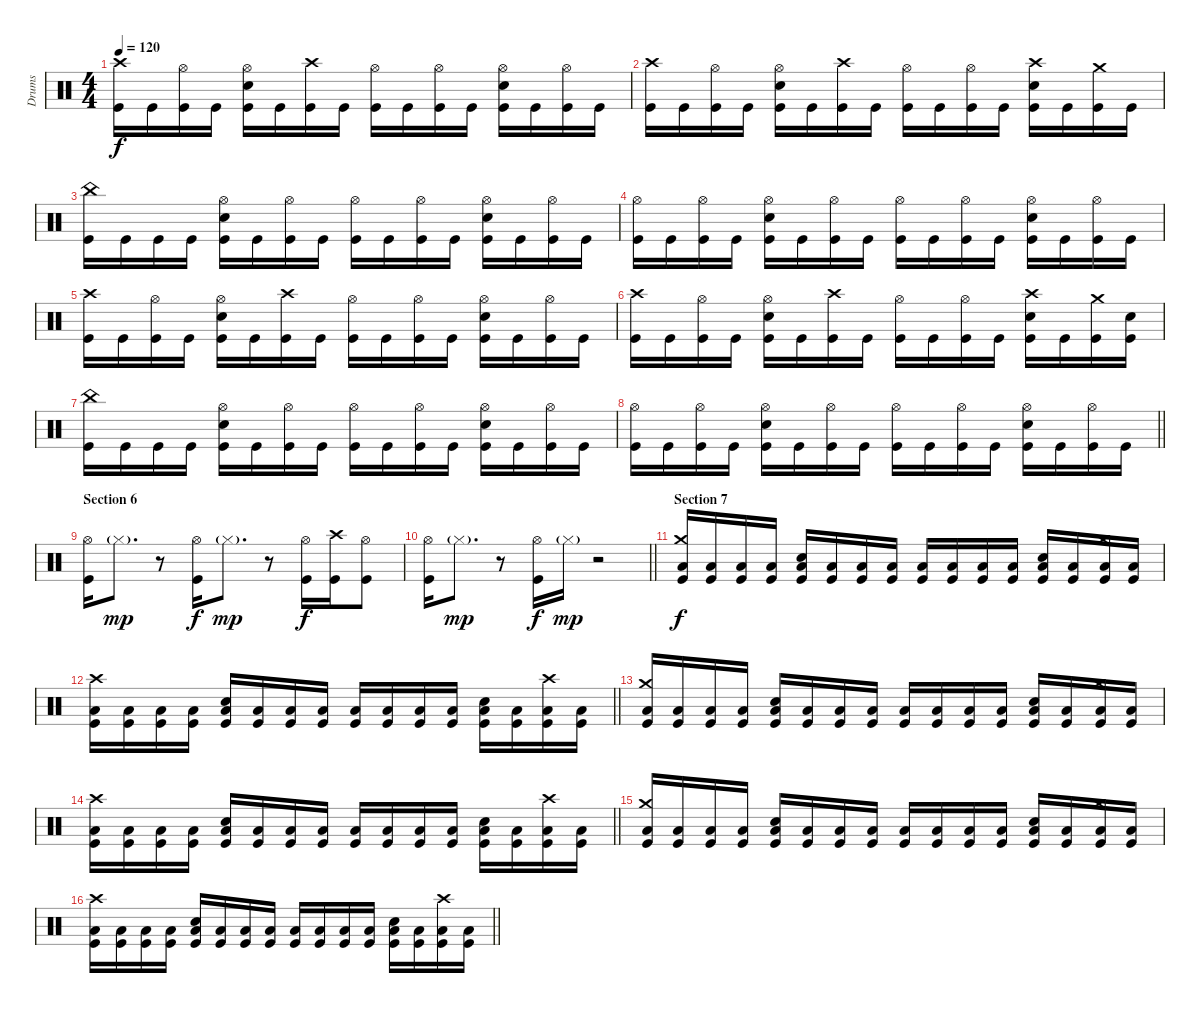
\track ("Drums" "Drums") {instrument percussion}
\staff {score}
\articulation defaults
\ts (4 4)
\tempo 120
\clef neutral
\ks c
("Crash high (hit)" "Kick (hit)").16{dy f} "Kick (hit)".16 ("Hi-Hat (open)" "Kick (hit)").16 "Kick (hit)".16 ("Hi-Hat (open)" "Snare (hit) 2" "Kick (hit)").16 "Kick (hit)".16 ("Crash high (hit)" "Kick (hit)").16 "Kick (hit)".16 ("Hi-Hat (open)" "Kick (hit)").16 "Kick (hit)".16 ("Hi-Hat (open)" "Kick (hit)").16 "Kick (hit)".16 ("Hi-Hat (open)" "Snare (hit) 2" "Kick (hit)").16 "Kick (hit)".16 ("Hi-Hat (open)" "Kick (hit)").16 "Kick (hit)".16 |
("Crash high (hit)" "Kick (hit)").16 "Kick (hit)".16 ("Hi-Hat (open)" "Kick (hit)").16 "Kick (hit)".16 ("Hi-Hat (open)" "Snare (hit) 2" "Kick (hit)").16 "Kick (hit)".16 ("Crash high (hit)" "Kick (hit)").16 "Kick (hit)".16 ("Hi-Hat (open)" "Kick (hit)").16 "Kick (hit)".16 ("Hi-Hat (open)" "Kick (hit)").16 "Kick (hit)".16 ("Crash high (hit)" "Snare (hit) 2" "Kick (hit)").16 "Kick (hit)".16 ("Crash medium (hit)" "Kick (hit)").16 "Kick (hit)".16 |
("China (hit)" "Kick (hit)").16 "Kick (hit)".16 "Kick (hit)".16 "Kick (hit)".16 ("Hi-Hat (open)" "Snare (hit) 2" "Kick (hit)").16 "Kick (hit)".16 ("Hi-Hat (open)" "Kick (hit)").16 "Kick (hit)".16 ("Hi-Hat (open)" "Kick (hit)").16 "Kick (hit)".16 ("Hi-Hat (open)" "Kick (hit)").16 "Kick (hit)".16 ("Hi-Hat (open)" "Snare (hit) 2" "Kick (hit)").16 "Kick (hit)".16 ("Hi-Hat (open)" "Kick (hit)").16 "Kick (hit)".16 |
("Hi-Hat (open)" "Kick (hit)").16 "Kick (hit)".16 ("Hi-Hat (open)" "Kick (hit)").16 "Kick (hit)".16 ("Hi-Hat (open)" "Snare (hit) 2" "Kick (hit)").16 "Kick (hit)".16 ("Hi-Hat (open)" "Kick (hit)").16 "Kick (hit)".16 ("Hi-Hat (open)" "Kick (hit)").16 "Kick (hit)".16 ("Hi-Hat (open)" "Kick (hit)").16 "Kick (hit)".16 ("Hi-Hat (open)" "Snare (hit) 2" "Kick (hit)").16 "Kick (hit)".16 ("Hi-Hat (open)" "Kick (hit)").16 "Kick (hit)".16 |
("Crash high (hit)" "Kick (hit)").16 "Kick (hit)".16 ("Hi-Hat (open)" "Kick (hit)").16 "Kick (hit)".16 ("Hi-Hat (open)" "Snare (hit) 2" "Kick (hit)").16 "Kick (hit)".16 ("Crash high (hit)" "Kick (hit)").16 "Kick (hit)".16 ("Hi-Hat (open)" "Kick (hit)").16 "Kick (hit)".16 ("Hi-Hat (open)" "Kick (hit)").16 "Kick (hit)".16 ("Hi-Hat (open)" "Snare (hit) 2" "Kick (hit)").16 "Kick (hit)".16 ("Hi-Hat (open)" "Kick (hit)").16 "Kick (hit)".16 |
("Crash high (hit)" "Kick (hit)").16 "Kick (hit)".16 ("Hi-Hat (open)" "Kick (hit)").16 "Kick (hit)".16 ("Hi-Hat (open)" "Snare (hit) 2" "Kick (hit)").16 "Kick (hit)".16 ("Crash high (hit)" "Kick (hit)").16 "Kick (hit)".16 ("Hi-Hat (open)" "Kick (hit)").16 "Kick (hit)".16 ("Hi-Hat (open)" "Kick (hit)").16 "Kick (hit)".16 ("Crash high (hit)" "Snare (hit) 2" "Kick (hit)").16 "Kick (hit)".16 ("Crash medium (hit)" "Kick (hit)").16 ("Snare (hit) 2" "Kick (hit)").16 |
("China (hit)" "Kick (hit)").16 "Kick (hit)".16 "Kick (hit)".16 "Kick (hit)".16 ("Hi-Hat (open)" "Snare (hit) 2" "Kick (hit)").16 "Kick (hit)".16 ("Hi-Hat (open)" "Kick (hit)").16 "Kick (hit)".16 ("Hi-Hat (open)" "Kick (hit)").16 "Kick (hit)".16 ("Hi-Hat (open)" "Kick (hit)").16 "Kick (hit)".16 ("Hi-Hat (open)" "Snare (hit) 2" "Kick (hit)").16 "Kick (hit)".16 ("Hi-Hat (open)" "Kick (hit)").16 "Kick (hit)".16 |
\barLineRight lightlight
("Hi-Hat (open)" "Kick (hit)").16 "Kick (hit)".16 ("Hi-Hat (open)" "Kick (hit)").16 "Kick (hit)".16 ("Hi-Hat (open)" "Snare (hit) 2" "Kick (hit)").16 "Kick (hit)".16 ("Hi-Hat (open)" "Kick (hit)").16 "Kick (hit)".16 ("Hi-Hat (open)" "Kick (hit)").16 "Kick (hit)".16 ("Hi-Hat (open)" "Kick (hit)").16 "Kick (hit)".16 ("Hi-Hat (open)" "Snare (hit) 2" "Kick (hit)").16 "Kick (hit)".16 ("Hi-Hat (open)" "Kick (hit)").16 "Kick (hit)".16 |
\section ("" "Section 6")
("Hi-Hat (open)" "Kick (hit)").16 "Hi-Hat (closed)"{g}.8{d dy mp} r.8 ("Hi-Hat (open)" "Kick (hit)").16{dy f} "Hi-Hat (closed)"{g}.8{d dy mp} r.8 ("Hi-Hat (open)" "Kick (hit)").16{dy f} ("Crash high (hit)" "Kick (hit)").16 ("Hi-Hat (open)" "Kick (hit)").8 |
\barLineRight lightlight
("Hi-Hat (open)" "Kick (hit)").16 "Hi-Hat (closed)"{g}.8{d dy mp} r.8 ("Hi-Hat (open)" "Kick (hit)").16{dy f} "Hi-Hat (closed)"{g}.16{dy mp} r.2 |
\section ("" "Section 7")
("Crash medium (hit)" "Low Floor Tom (hit)" "Kick (hit)").16{dy f} ("Low Floor Tom (hit)" "Kick (hit)").16 ("Low Floor Tom (hit)" "Kick (hit)").16 ("Low Floor Tom (hit)" "Kick (hit)").16 ("Snare (hit) 2" "Low Floor Tom (hit)" "Kick (hit)").16 ("Low Floor Tom (hit)" "Kick (hit)").16 ("Low Floor Tom (hit)" "Kick (hit)").16 ("Low Floor Tom (hit)" "Kick (hit)").16 ("Low Floor Tom (hit)" "Kick (hit)").16 ("Low Floor Tom (hit)" "Kick (hit)").16 ("Low Floor Tom (hit)" "Kick (hit)").16 ("Low Floor Tom (hit)" "Kick (hit)").16 ("Snare (hit) 2" "Low Floor Tom (hit)" "Kick (hit)").16 ("Low Floor Tom (hit)" "Kick (hit)").16 ("Crash medium (hit)" "Low Floor Tom (hit)" "Kick (hit)").16 ("Low Floor Tom (hit)" "Kick (hit)").16 |
\barLineRight lightlight
("Crash high (hit)" "Low Floor Tom (hit)" "Kick (hit)").16 ("Low Floor Tom (hit)" "Kick (hit)").16 ("Low Floor Tom (hit)" "Kick (hit)").16 ("Low Floor Tom (hit)" "Kick (hit)").16 ("Snare (hit) 2" "Low Floor Tom (hit)" "Kick (hit)").16 ("Low Floor Tom (hit)" "Kick (hit)").16 ("Low Floor Tom (hit)" "Kick (hit)").16 ("Low Floor Tom (hit)" "Kick (hit)").16 ("Low Floor Tom (hit)" "Kick (hit)").16 ("Low Floor Tom (hit)" "Kick (hit)").16 ("Low Floor Tom (hit)" "Kick (hit)").16 ("Low Floor Tom (hit)" "Kick (hit)").16 ("Snare (hit) 2" "Low Floor Tom (hit)" "Kick (hit)").16 ("Low Floor Tom (hit)" "Kick (hit)").16 ("Crash high (hit)" "Low Floor Tom (hit)" "Kick (hit)").16 ("Low Floor Tom (hit)" "Kick (hit)").16 |
("Crash medium (hit)" "Low Floor Tom (hit)" "Kick (hit)").16 ("Low Floor Tom (hit)" "Kick (hit)").16 ("Low Floor Tom (hit)" "Kick (hit)").16 ("Low Floor Tom (hit)" "Kick (hit)").16 ("Snare (hit) 2" "Low Floor Tom (hit)" "Kick (hit)").16 ("Low Floor Tom (hit)" "Kick (hit)").16 ("Low Floor Tom (hit)" "Kick (hit)").16 ("Low Floor Tom (hit)" "Kick (hit)").16 ("Low Floor Tom (hit)" "Kick (hit)").16 ("Low Floor Tom (hit)" "Kick (hit)").16 ("Low Floor Tom (hit)" "Kick (hit)").16 ("Low Floor Tom (hit)" "Kick (hit)").16 ("Snare (hit) 2" "Low Floor Tom (hit)" "Kick (hit)").16 ("Low Floor Tom (hit)" "Kick (hit)").16 ("Crash medium (hit)" "Low Floor Tom (hit)" "Kick (hit)").16 ("Low Floor Tom (hit)" "Kick (hit)").16 |
\barLineRight lightlight
("Crash high (hit)" "Low Floor Tom (hit)" "Kick (hit)").16 ("Low Floor Tom (hit)" "Kick (hit)").16 ("Low Floor Tom (hit)" "Kick (hit)").16 ("Low Floor Tom (hit)" "Kick (hit)").16 ("Snare (hit) 2" "Low Floor Tom (hit)" "Kick (hit)").16 ("Low Floor Tom (hit)" "Kick (hit)").16 ("Low Floor Tom (hit)" "Kick (hit)").16 ("Low Floor Tom (hit)" "Kick (hit)").16 ("Low Floor Tom (hit)" "Kick (hit)").16 ("Low Floor Tom (hit)" "Kick (hit)").16 ("Low Floor Tom (hit)" "Kick (hit)").16 ("Low Floor Tom (hit)" "Kick (hit)").16 ("Snare (hit) 2" "Low Floor Tom (hit)" "Kick (hit)").16 ("Low Floor Tom (hit)" "Kick (hit)").16 ("Crash high (hit)" "Low Floor Tom (hit)" "Kick (hit)").16 ("Low Floor Tom (hit)" "Kick (hit)").16 |
("Crash medium (hit)" "Low Floor Tom (hit)" "Kick (hit)").16 ("Low Floor Tom (hit)" "Kick (hit)").16 ("Low Floor Tom (hit)" "Kick (hit)").16 ("Low Floor Tom (hit)" "Kick (hit)").16 ("Snare (hit) 2" "Low Floor Tom (hit)" "Kick (hit)").16 ("Low Floor Tom (hit)" "Kick (hit)").16 ("Low Floor Tom (hit)" "Kick (hit)").16 ("Low Floor Tom (hit)" "Kick (hit)").16 ("Low Floor Tom (hit)" "Kick (hit)").16 ("Low Floor Tom (hit)" "Kick (hit)").16 ("Low Floor Tom (hit)" "Kick (hit)").16 ("Low Floor Tom (hit)" "Kick (hit)").16 ("Snare (hit) 2" "Low Floor Tom (hit)" "Kick (hit)").16 ("Low Floor Tom (hit)" "Kick (hit)").16 ("Crash medium (hit)" "Low Floor Tom (hit)" "Kick (hit)").16 ("Low Floor Tom (hit)" "Kick (hit)").16 |
\barLineRight lightlight
("Crash high (hit)" "Low Floor Tom (hit)" "Kick (hit)").16 ("Low Floor Tom (hit)" "Kick (hit)").16 ("Low Floor Tom (hit)" "Kick (hit)").16 ("Low Floor Tom (hit)" "Kick (hit)").16 ("Snare (hit) 2" "Low Floor Tom (hit)" "Kick (hit)").16 ("Low Floor Tom (hit)" "Kick (hit)").16 ("Low Floor Tom (hit)" "Kick (hit)").16 ("Low Floor Tom (hit)" "Kick (hit)").16 ("Low Floor Tom (hit)" "Kick (hit)").16 ("Low Floor Tom (hit)" "Kick (hit)").16 ("Low Floor Tom (hit)" "Kick (hit)").16 ("Low Floor Tom (hit)" "Kick (hit)").16 ("Snare (hit) 2" "Low Floor Tom (hit)" "Kick (hit)").16 ("Low Floor Tom (hit)" "Kick (hit)").16 ("Crash high (hit)" "Low Floor Tom (hit)" "Kick (hit)").16 ("Low Floor Tom (hit)" "Kick (hit)").16
